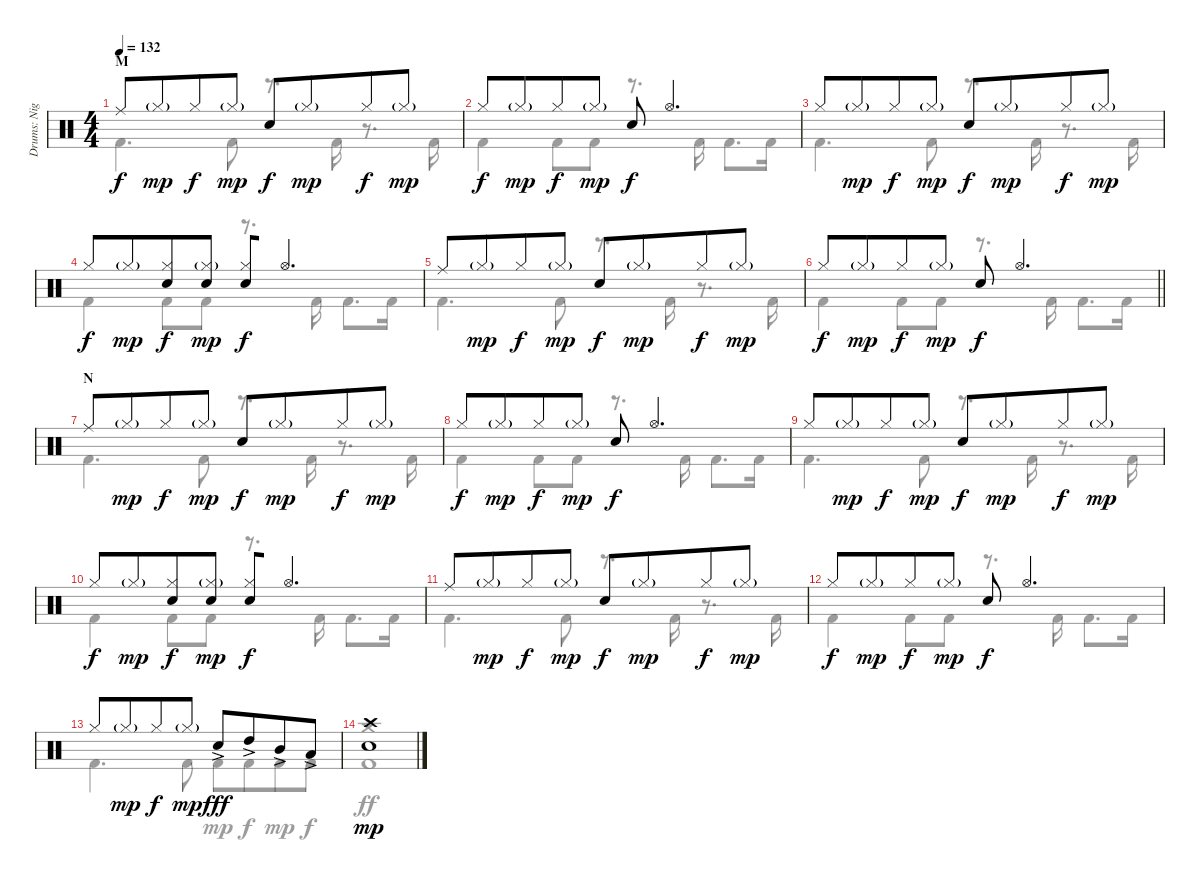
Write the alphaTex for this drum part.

\track ("Drums: Nigel Ollson" "Drums: Nig") {instrument percussion}
\staff {score}
\articulation defaults
\voice
\ts (4 4)
\section ("" "M")
\tempo 132
\clef neutral
\ks c "Ride (middle)".8{dy f} "Hi-Hat (closed)"{g}.8{dy mp beam merge} "Hi-Hat (closed)".8{dy f} "Hi-Hat (closed)"{g}.8{dy mp} "Electric Snare (hit)".8{dy f} "Hi-Hat (closed)"{g}.8{dy mp beam merge} "Hi-Hat (closed)".8{dy f} "Hi-Hat (closed)"{g}.8{dy mp}
|
"Hi-Hat (closed)".8{dy f} "Hi-Hat (closed)"{g}.8{dy mp beam merge} "Hi-Hat (closed)".8{dy f} "Hi-Hat (closed)"{g}.8{dy mp} "Electric Snare (hit)".8{dy f} "Hi-Hat (open)".4{d} |
"Hi-Hat (closed)".8 "Hi-Hat (closed)"{g}.8{dy mp beam merge} "Hi-Hat (closed)".8{dy f} "Hi-Hat (closed)"{g}.8{dy mp} "Electric Snare (hit)".8{dy f} "Hi-Hat (closed)"{g}.8{dy mp beam merge} "Hi-Hat (closed)".8{dy f} "Hi-Hat (closed)"{g}.8{dy mp} |
"Hi-Hat (closed)".8{dy f} "Hi-Hat (closed)"{g}.8{dy mp beam merge} ("Hi-Hat (closed)" "Electric Snare (hit)").8{dy f} ("Hi-Hat (closed)"{g} "Electric Snare (hit)").8{dy mp} ("Hi-Hat (closed)" "Electric Snare (hit)").8{dy f beam merge} "Hi-Hat (open)".4{d} |
"Ride (middle)".8 "Hi-Hat (closed)"{g}.8{dy mp beam merge} "Hi-Hat (closed)".8{dy f} "Hi-Hat (closed)"{g}.8{dy mp} "Electric Snare (hit)".8{dy f} "Hi-Hat (closed)"{g}.8{dy mp beam merge} "Hi-Hat (closed)".8{dy f} "Hi-Hat (closed)"{g}.8{dy mp} |
\barLineRight lightlight "Hi-Hat (closed)".8{dy f} "Hi-Hat (closed)"{g}.8{dy mp beam merge} "Hi-Hat (closed)".8{dy f} "Hi-Hat (closed)"{g}.8{dy mp} "Electric Snare (hit)".8{dy f} "Hi-Hat (open)".4{d}
|
\section ("" "N")
"Ride (middle)".8 "Hi-Hat (closed)"{g}.8{dy mp beam merge} "Hi-Hat (closed)".8{dy f} "Hi-Hat (closed)"{g}.8{dy mp} "Electric Snare (hit)".8{dy f} "Hi-Hat (closed)"{g}.8{dy mp beam merge} "Hi-Hat (closed)".8{dy f} "Hi-Hat (closed)"{g}.8{dy mp} |
"Hi-Hat (closed)".8{dy f} "Hi-Hat (closed)"{g}.8{dy mp beam merge} "Hi-Hat (closed)".8{dy f} "Hi-Hat (closed)"{g}.8{dy mp} "Electric Snare (hit)".8{dy f} "Hi-Hat (open)".4{d} |
"Hi-Hat (closed)".8 "Hi-Hat (closed)"{g}.8{dy mp beam merge} "Hi-Hat (closed)".8{dy f} "Hi-Hat (closed)"{g}.8{dy mp} "Electric Snare (hit)".8{dy f} "Hi-Hat (closed)"{g}.8{dy mp beam merge} "Hi-Hat (closed)".8{dy f} "Hi-Hat (closed)"{g}.8{dy mp} |
"Hi-Hat (closed)".8{dy f} "Hi-Hat (closed)"{g}.8{dy mp beam merge} ("Hi-Hat (closed)" "Electric Snare (hit)").8{dy f} ("Hi-Hat (closed)"{g} "Electric Snare (hit)").8{dy mp} ("Hi-Hat (closed)" "Electric Snare (hit)").8{dy f beam merge} "Hi-Hat (open)".4{d} |
"Ride (middle)".8 "Hi-Hat (closed)"{g}.8{dy mp beam merge} "Hi-Hat (closed)".8{dy f} "Hi-Hat (closed)"{g}.8{dy mp} "Electric Snare (hit)".8{dy f} "Hi-Hat (closed)"{g}.8{dy mp beam merge} "Hi-Hat (closed)".8{dy f} "Hi-Hat (closed)"{g}.8{dy mp} |
"Hi-Hat (closed)".8{dy f} "Hi-Hat (closed)"{g}.8{dy mp beam merge} "Hi-Hat (closed)".8{dy f} "Hi-Hat (closed)"{g}.8{dy mp} "Electric Snare (hit)".8{dy f} "Hi-Hat (open)".4{d} |
"Hi-Hat (closed)".8 "Hi-Hat (closed)"{g}.8{dy mp beam merge} "Hi-Hat (closed)".8{dy f} "Hi-Hat (closed)"{g}.8{dy mp} "Electric Snare (hit)"{ac}.8{dy fff} "High Tom (hit)"{ac}.8{beam merge} "Mid Tom (hit)"{ac}.8 "Low Tom (hit)"{ac}.8 |
("Crash high (hit)" "Electric Snare (hit)").1{dy mp} |
\voice
\clef neutral
\ottava regular
\simile none
\ks c "Kick (hit) 2".4{d dy f} "Kick (hit) 2".8
r.8{d} "Kick (hit) 2".16 r.8{d} "Kick (hit) 2".16 |
"Kick (hit) 2".4 "Kick (hit) 2".8 "Kick (hit) 2".8 r.8{d} "Kick (hit) 2".16 "Kick (hit) 2".8{d} "Kick (hit) 2".16 |
"Kick (hit) 2".4{d} "Kick (hit) 2".8 r.8{d} "Kick (hit) 2".16 r.8{d} "Kick (hit) 2".16 |
"Kick (hit) 2".4 "Kick (hit) 2".8 "Kick (hit) 2".8 r.8{d} "Kick (hit) 2".16 "Kick (hit) 2".8{d} "Kick (hit) 2".16 |
"Kick (hit) 2".4{d} "Kick (hit) 2".8 r.8{d} "Kick (hit) 2".16 r.8{d} "Kick (hit) 2".16 |
\barLineRight lightlight "Kick (hit) 2".4 "Kick (hit) 2".8 "Kick (hit) 2".8
r.8{d} "Kick (hit) 2".16 "Kick (hit) 2".8{d} "Kick (hit) 2".16 |
"Kick (hit) 2".4{d} "Kick (hit) 2".8 r.8{d} "Kick (hit) 2".16 r.8{d} "Kick (hit) 2".16 |
"Kick (hit) 2".4 "Kick (hit) 2".8 "Kick (hit) 2".8 r.8{d} "Kick (hit) 2".16 "Kick (hit) 2".8{d} "Kick (hit) 2".16 |
"Kick (hit) 2".4{d} "Kick (hit) 2".8 r.8{d} "Kick (hit) 2".16 r.8{d} "Kick (hit) 2".16 |
"Kick (hit) 2".4 "Kick (hit) 2".8 "Kick (hit) 2".8 r.8{d} "Kick (hit) 2".16 "Kick (hit) 2".8{d} "Kick (hit) 2".16 |
"Kick (hit) 2".4{d} "Kick (hit) 2".8 r.8{d} "Kick (hit) 2".16 r.8{d} "Kick (hit) 2".16 |
"Kick (hit) 2".4 "Kick (hit) 2".8 "Kick (hit) 2".8 r.8{d} "Kick (hit) 2".16 "Kick (hit) 2".8{d} "Kick (hit) 2".16 |
"Kick (hit) 2".4{d} "Kick (hit) 2".8 "Kick (hit) 2".8{dy mp} "Kick (hit) 2".8{dy f beam merge} "Kick (hit) 2".8{dy mp} "Kick (hit) 2".8{dy f} |
("Crash medium (hit)" "Kick (hit) 2").1{dy ff} |
